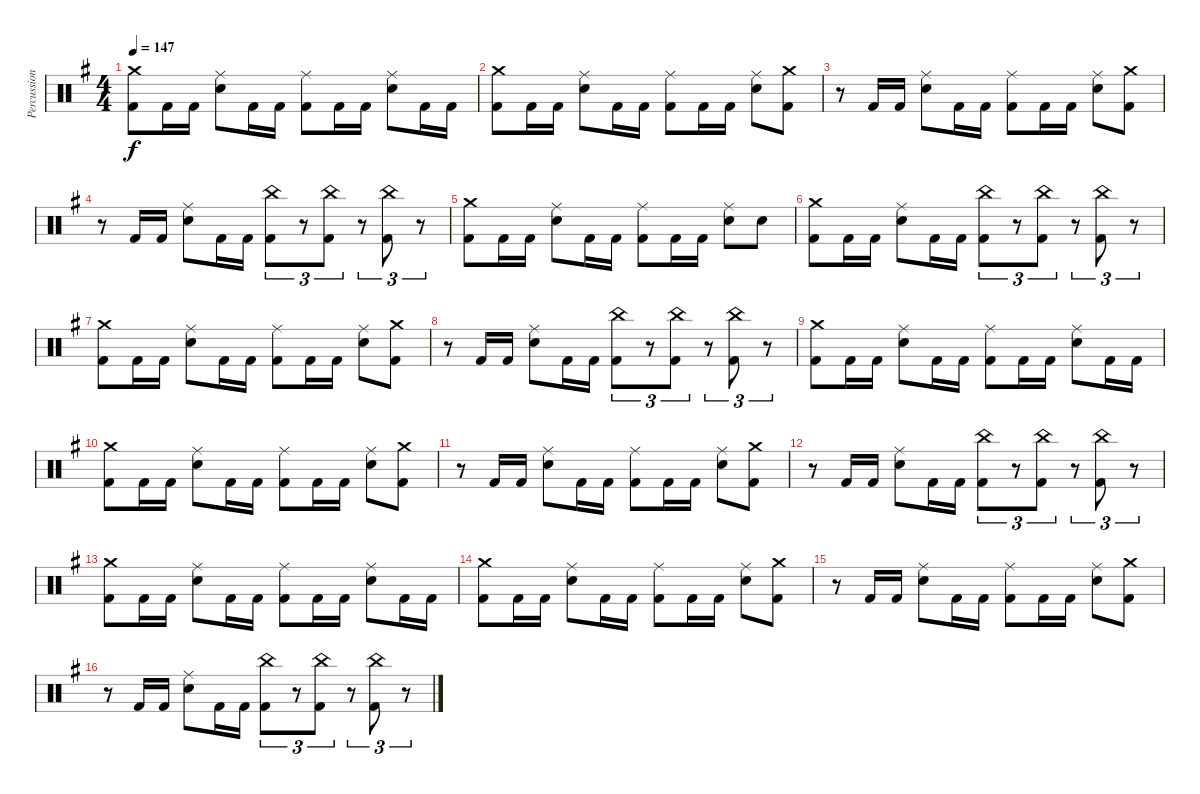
\track ("Percussion" "Percussion") {instrument percussion}
\staff {score}
\articulation defaults
\ts (4 4)
\tempo 147
\clef neutral
\ks eminor
("Crash medium (hit)" "Kick (hit) 2").8{dy f} "Kick (hit) 2".16 "Kick (hit) 2".16 ("Ride (middle)" "Snare (hit) 2").8 "Kick (hit) 2".16 "Kick (hit) 2".16 ("Ride (middle)" "Kick (hit) 2").8 "Kick (hit) 2".16 "Kick (hit) 2".16 ("Ride (middle)" "Snare (hit) 2").8 "Kick (hit) 2".16 "Kick (hit) 2".16 |
("Crash medium (hit)" "Kick (hit) 2").8 "Kick (hit) 2".16 "Kick (hit) 2".16 ("Ride (middle)" "Snare (hit) 2").8 "Kick (hit) 2".16 "Kick (hit) 2".16 ("Ride (middle)" "Kick (hit) 2").8 "Kick (hit) 2".16 "Kick (hit) 2".16 ("Ride (middle)" "Snare (hit) 2").8 ("Crash medium (hit)" "Kick (hit) 2").8 |
r.8 "Kick (hit) 2".16 "Kick (hit) 2".16 ("Ride (middle)" "Snare (hit) 2").8 "Kick (hit) 2".16 "Kick (hit) 2".16 ("Ride (middle)" "Kick (hit) 2").8 "Kick (hit) 2".16 "Kick (hit) 2".16 ("Ride (middle)" "Snare (hit) 2").8 ("Crash medium (hit)" "Kick (hit) 2").8 |
r.8 "Kick (hit) 2".16 "Kick (hit) 2".16 ("Ride (middle)" "Snare (hit) 2").8 "Kick (hit) 2".16 "Kick (hit) 2".16 ("China (hit)" "Kick (hit) 2").8{tu (3 2)} r.8{tu (3 2)} ("China (hit)" "Kick (hit) 2").8{tu (3 2)} r.8{tu (3 2)} ("China (hit)" "Kick (hit) 2").8{tu (3 2)} r.8{tu (3 2)} |
("Crash medium (hit)" "Kick (hit) 2").8 "Kick (hit) 2".16 "Kick (hit) 2".16 ("Ride (middle)" "Snare (hit) 2").8 "Kick (hit) 2".16 "Kick (hit) 2".16 ("Ride (middle)" "Kick (hit) 2").8 "Kick (hit) 2".16 "Kick (hit) 2".16 ("Ride (middle)" "Snare (hit) 2").8 "Snare (hit) 2".8 |
("Crash medium (hit)" "Kick (hit) 2").8 "Kick (hit) 2".16 "Kick (hit) 2".16 ("Ride (middle)" "Snare (hit) 2").8 "Kick (hit) 2".16 "Kick (hit) 2".16 ("China (hit)" "Kick (hit) 2").8{tu (3 2)} r.8{tu (3 2)} ("China (hit)" "Kick (hit) 2").8{tu (3 2)} r.8{tu (3 2)} ("China (hit)" "Kick (hit) 2").8{tu (3 2)} r.8{tu (3 2)} |
("Crash medium (hit)" "Kick (hit) 2").8 "Kick (hit) 2".16 "Kick (hit) 2".16 ("Ride (middle)" "Snare (hit) 2").8 "Kick (hit) 2".16 "Kick (hit) 2".16 ("Ride (middle)" "Kick (hit) 2").8 "Kick (hit) 2".16 "Kick (hit) 2".16 ("Ride (middle)" "Snare (hit) 2").8 ("Crash medium (hit)" "Kick (hit) 2").8 |
r.8 "Kick (hit) 2".16 "Kick (hit) 2".16 ("Ride (middle)" "Snare (hit) 2").8 "Kick (hit) 2".16 "Kick (hit) 2".16 ("China (hit)" "Kick (hit) 2").8{tu (3 2)} r.8{tu (3 2)} ("China (hit)" "Kick (hit) 2").8{tu (3 2)} r.8{tu (3 2)} ("China (hit)" "Kick (hit) 2").8{tu (3 2)} r.8{tu (3 2)} |
("Crash medium (hit)" "Kick (hit) 2").8 "Kick (hit) 2".16 "Kick (hit) 2".16 ("Ride (middle)" "Snare (hit) 2").8 "Kick (hit) 2".16 "Kick (hit) 2".16 ("Ride (middle)" "Kick (hit) 2").8 "Kick (hit) 2".16 "Kick (hit) 2".16 ("Ride (middle)" "Snare (hit) 2").8 "Kick (hit) 2".16 "Kick (hit) 2".16 |
("Crash medium (hit)" "Kick (hit) 2").8 "Kick (hit) 2".16 "Kick (hit) 2".16 ("Ride (middle)" "Snare (hit) 2").8 "Kick (hit) 2".16 "Kick (hit) 2".16 ("Ride (middle)" "Kick (hit) 2").8 "Kick (hit) 2".16 "Kick (hit) 2".16 ("Ride (middle)" "Snare (hit) 2").8 ("Crash medium (hit)" "Kick (hit) 2").8 |
r.8 "Kick (hit) 2".16 "Kick (hit) 2".16 ("Ride (middle)" "Snare (hit) 2").8 "Kick (hit) 2".16 "Kick (hit) 2".16 ("Ride (middle)" "Kick (hit) 2").8 "Kick (hit) 2".16 "Kick (hit) 2".16 ("Ride (middle)" "Snare (hit) 2").8 ("Crash medium (hit)" "Kick (hit) 2").8 |
r.8 "Kick (hit) 2".16 "Kick (hit) 2".16 ("Ride (middle)" "Snare (hit) 2").8 "Kick (hit) 2".16 "Kick (hit) 2".16 ("China (hit)" "Kick (hit) 2").8{tu (3 2)} r.8{tu (3 2)} ("China (hit)" "Kick (hit) 2").8{tu (3 2)} r.8{tu (3 2)} ("China (hit)" "Kick (hit) 2").8{tu (3 2)} r.8{tu (3 2)} |
("Crash medium (hit)" "Kick (hit) 2").8 "Kick (hit) 2".16 "Kick (hit) 2".16 ("Ride (middle)" "Snare (hit) 2").8 "Kick (hit) 2".16 "Kick (hit) 2".16 ("Ride (middle)" "Kick (hit) 2").8 "Kick (hit) 2".16 "Kick (hit) 2".16 ("Ride (middle)" "Snare (hit) 2").8 "Kick (hit) 2".16 "Kick (hit) 2".16 |
("Crash medium (hit)" "Kick (hit) 2").8 "Kick (hit) 2".16 "Kick (hit) 2".16 ("Ride (middle)" "Snare (hit) 2").8 "Kick (hit) 2".16 "Kick (hit) 2".16 ("Ride (middle)" "Kick (hit) 2").8 "Kick (hit) 2".16 "Kick (hit) 2".16 ("Ride (middle)" "Snare (hit) 2").8 ("Crash medium (hit)" "Kick (hit) 2").8 |
r.8 "Kick (hit) 2".16 "Kick (hit) 2".16 ("Ride (middle)" "Snare (hit) 2").8 "Kick (hit) 2".16 "Kick (hit) 2".16 ("Ride (middle)" "Kick (hit) 2").8 "Kick (hit) 2".16 "Kick (hit) 2".16 ("Ride (middle)" "Snare (hit) 2").8 ("Crash medium (hit)" "Kick (hit) 2").8 |
r.8 "Kick (hit) 2".16 "Kick (hit) 2".16 ("Ride (middle)" "Snare (hit) 2").8 "Kick (hit) 2".16 "Kick (hit) 2".16 ("China (hit)" "Kick (hit) 2").8{tu (3 2)} r.8{tu (3 2)} ("China (hit)" "Kick (hit) 2").8{tu (3 2)} r.8{tu (3 2)} ("China (hit)" "Kick (hit) 2").8{tu (3 2)} r.8{tu (3 2)}
